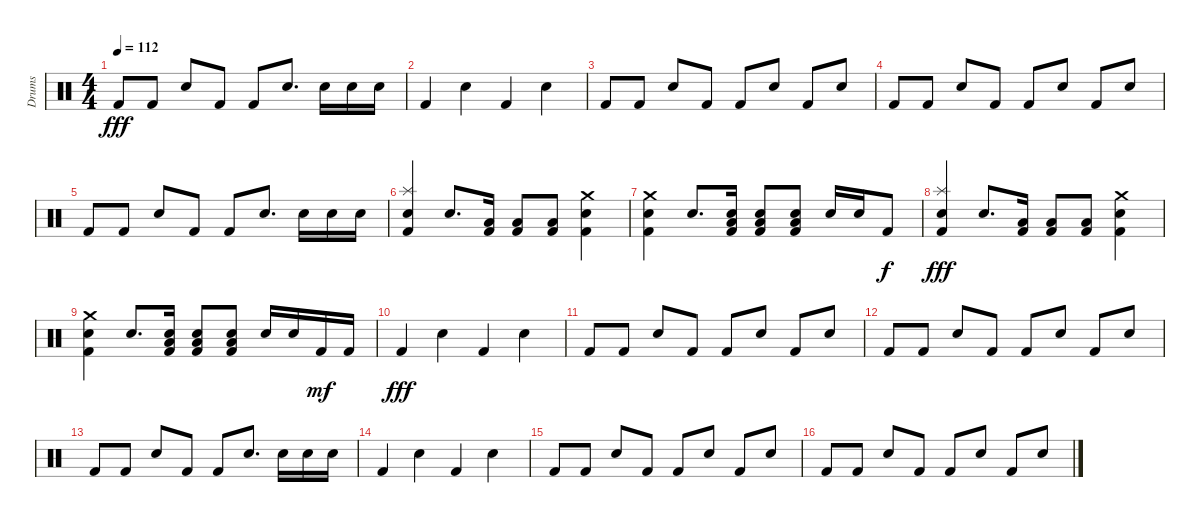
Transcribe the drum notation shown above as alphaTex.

\track ("Drums" "Drums") {instrument percussion}
\staff {score}
\articulation defaults
\ts (4 4)
\tempo 112
\clef neutral
\ks c "Kick (hit) 2".8{dy fff} "Kick (hit) 2".8 "Electric Snare (hit)".8 "Kick (hit) 2".8 "Kick (hit) 2".8 "Electric Snare (hit)".8{d} "Electric Snare (hit)".16 "Electric Snare (hit)".16 "Electric Snare (hit)".16
|
"Kick (hit) 2".4 "Electric Snare (hit)".4 "Kick (hit) 2".4 "Electric Snare (hit)".4 |
"Kick (hit) 2".8 "Kick (hit) 2".8 "Electric Snare (hit)".8 "Kick (hit) 2".8 "Kick (hit) 2".8 "Electric Snare (hit)".8 "Kick (hit) 2".8 "Electric Snare (hit)".8 |
"Kick (hit) 2".8 "Kick (hit) 2".8 "Electric Snare (hit)".8 "Kick (hit) 2".8 "Kick (hit) 2".8 "Electric Snare (hit)".8 "Kick (hit) 2".8 "Electric Snare (hit)".8 |
"Kick (hit) 2".8 "Kick (hit) 2".8 "Electric Snare (hit)".8 "Kick (hit) 2".8 "Kick (hit) 2".8 "Electric Snare (hit)".8{d} "Electric Snare (hit)".16 "Electric Snare (hit)".16 "Electric Snare (hit)".16 |
("Splash (hit)" "Snare (hit) 2" "Kick (hit) 2").4 "Electric Snare (hit)".8{d} ("Kick (hit) 2" "Low Floor Tom (hit)").16 ("Kick (hit) 2" "Low Floor Tom (hit)").8 ("Kick (hit) 2" "Low Floor Tom (hit)").8 ("Crash medium (hit)" "Electric Snare (hit)" "Kick (hit) 2").4 |
("Crash medium (hit)" "Electric Snare (hit)" "Kick (hit) 2").4 "Electric Snare (hit)".8{d} ("Kick (hit) 2" "Snare (hit) 2" "Low Floor Tom (hit)").16 ("Kick (hit) 2" "Snare (hit) 2" "Low Floor Tom (hit)").8 ("Kick (hit) 2" "Snare (hit) 2" "Low Floor Tom (hit)").8 "Electric Snare (hit)".16 "Electric Snare (hit)".16 "Kick (hit) 2".8{dy f} |
("Splash (hit)" "Snare (hit) 2" "Kick (hit) 2").4{dy fff} "Electric Snare (hit)".8{d} ("Kick (hit) 2" "Low Floor Tom (hit)").16 ("Kick (hit) 2" "Low Floor Tom (hit)").8 ("Kick (hit) 2" "Low Floor Tom (hit)").8 ("Crash medium (hit)" "Electric Snare (hit)" "Kick (hit) 2").4 |
("Crash medium (hit)" "Electric Snare (hit)" "Kick (hit) 2").4 "Electric Snare (hit)".8{d} ("Kick (hit) 2" "Snare (hit) 2" "Low Floor Tom (hit)").16 ("Kick (hit) 2" "Snare (hit) 2" "Low Floor Tom (hit)").8 ("Kick (hit) 2" "Snare (hit) 2" "Low Floor Tom (hit)").8 "Electric Snare (hit)".16 "Electric Snare (hit)".16 "Kick (hit) 2".16{dy mf} "Kick (hit) 2".16 |
"Kick (hit) 2".4{dy fff} "Electric Snare (hit)".4 "Kick (hit) 2".4 "Electric Snare (hit)".4 |
"Kick (hit) 2".8 "Kick (hit) 2".8 "Electric Snare (hit)".8 "Kick (hit) 2".8 "Kick (hit) 2".8 "Electric Snare (hit)".8 "Kick (hit) 2".8 "Electric Snare (hit)".8 |
"Kick (hit) 2".8 "Kick (hit) 2".8 "Electric Snare (hit)".8 "Kick (hit) 2".8 "Kick (hit) 2".8 "Electric Snare (hit)".8 "Kick (hit) 2".8 "Electric Snare (hit)".8 |
"Kick (hit) 2".8 "Kick (hit) 2".8 "Electric Snare (hit)".8 "Kick (hit) 2".8 "Kick (hit) 2".8 "Electric Snare (hit)".8{d} "Electric Snare (hit)".16 "Electric Snare (hit)".16 "Electric Snare (hit)".16 |
"Kick (hit) 2".4 "Electric Snare (hit)".4 "Kick (hit) 2".4 "Electric Snare (hit)".4 |
"Kick (hit) 2".8 "Kick (hit) 2".8 "Electric Snare (hit)".8 "Kick (hit) 2".8 "Kick (hit) 2".8 "Electric Snare (hit)".8 "Kick (hit) 2".8 "Electric Snare (hit)".8 |
"Kick (hit) 2".8 "Kick (hit) 2".8 "Electric Snare (hit)".8 "Kick (hit) 2".8 "Kick (hit) 2".8 "Electric Snare (hit)".8 "Kick (hit) 2".8 "Electric Snare (hit)".8
